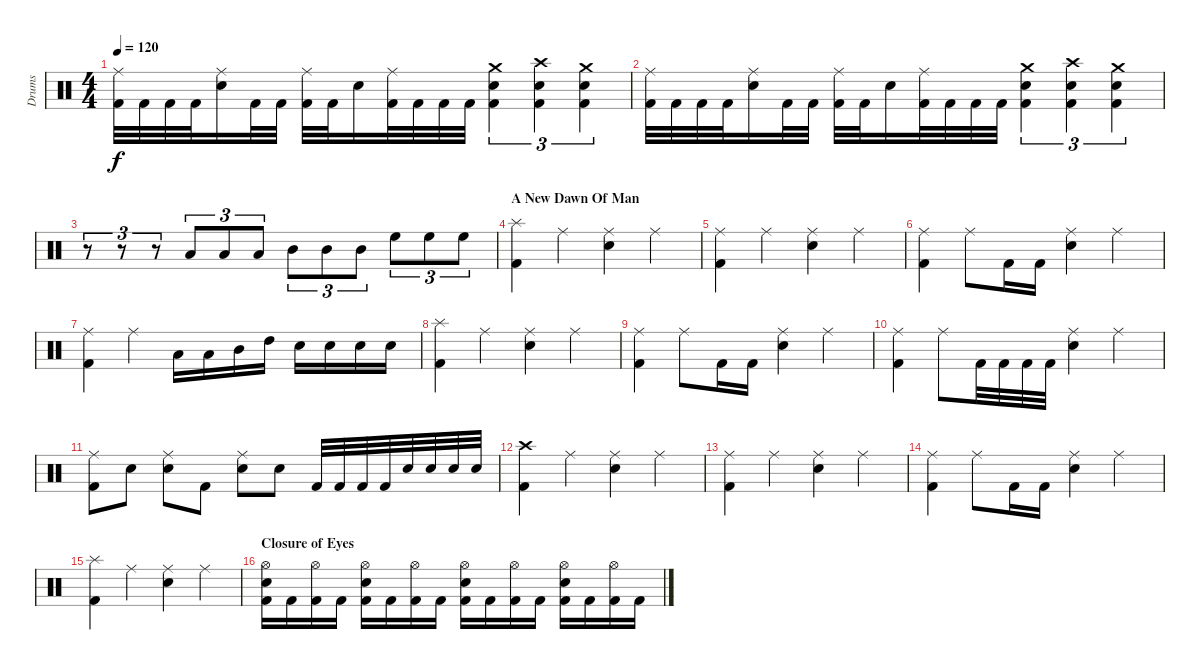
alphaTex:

\track ("Drums" "Drums") {instrument percussion}
\staff {score}
\articulation defaults
\ts (4 4)
\tempo 120
\clef neutral
\ks c
("Kick (hit) 2" "Ride (middle)").32{dy f} "Kick (hit) 2".32 "Kick (hit) 2".32 "Kick (hit) 2".32 ("Snare (hit) 2" "Ride (middle)").16 "Kick (hit) 2".32 "Kick (hit) 2".32 ("Kick (hit) 2" "Ride (middle)").32 "Kick (hit) 2".32 "Snare (hit) 2".16 ("Kick (hit) 2" "Ride (middle)").32 "Kick (hit) 2".32 "Kick (hit) 2".32 "Kick (hit) 2".32 ("Kick (hit) 2" "Snare (hit) 2" "Crash medium (hit)").4{tu (3 2)} ("Kick (hit) 2" "Snare (hit) 2" "Crash high (hit)").4{tu (3 2)} ("Kick (hit) 2" "Snare (hit) 2" "Crash medium (hit)").4{tu (3 2)} |
("Kick (hit) 2" "Ride (middle)").32 "Kick (hit) 2".32 "Kick (hit) 2".32 "Kick (hit) 2".32 ("Snare (hit) 2" "Ride (middle)").16 "Kick (hit) 2".32 "Kick (hit) 2".32 ("Kick (hit) 2" "Ride (middle)").32 "Kick (hit) 2".32 "Snare (hit) 2".16 ("Kick (hit) 2" "Ride (middle)").32 "Kick (hit) 2".32 "Kick (hit) 2".32 "Kick (hit) 2".32 ("Kick (hit) 2" "Snare (hit) 2" "Crash medium (hit)").4{tu (3 2)} ("Kick (hit) 2" "Snare (hit) 2" "Crash high (hit)").4{tu (3 2)} ("Kick (hit) 2" "Snare (hit) 2" "Crash medium (hit)").4{tu (3 2)} |
r.8{tu (3 2)} r.8{tu (3 2)} r.8{tu (3 2)} "Low Tom (hit)".8{tu (3 2)} "Low Tom (hit)".8{tu (3 2)} "Low Tom (hit)".8{tu (3 2)} "Mid Tom (hit)".8{tu (3 2)} "Mid Tom (hit)".8{tu (3 2)} "Mid Tom (hit)".8{tu (3 2)} "High Floor Tom (hit)".8{tu (3 2)} "High Floor Tom (hit)".8{tu (3 2)} "High Floor Tom (hit)".8{tu (3 2)} |
\section ("" "A New Dawn Of Man")
("Kick (hit) 2" "Splash (hit)").4 "Ride (middle)".4 ("Snare (hit) 2" "Ride (middle)").4 "Ride (middle)".4 |
("Kick (hit) 2" "Ride (middle)").4 "Ride (middle)".4 ("Snare (hit) 2" "Ride (middle)").4 "Ride (middle)".4 |
("Kick (hit) 2" "Ride (middle)").4 "Ride (middle)".8 "Kick (hit) 2".16 "Kick (hit) 2".16 ("Snare (hit) 2" "Ride (middle)").4 "Ride (middle)".4 |
("Kick (hit) 2" "Ride (middle)").4 "Ride (middle)".4 "Low Tom (hit)".16 "Low Tom (hit)".16 "Mid Tom (hit)".16 "High Tom (hit)".16 "Snare (hit) 2".16 "Snare (hit) 2".16 "Snare (hit) 2".16 "Snare (hit) 2".16 |
("Kick (hit) 2" "Splash (hit)").4 "Ride (middle)".4 ("Snare (hit) 2" "Ride (middle)").4 "Ride (middle)".4 |
("Kick (hit) 2" "Ride (middle)").4 "Ride (middle)".8 "Kick (hit) 2".16 "Kick (hit) 2".16 ("Snare (hit) 2" "Ride (middle)").4 "Ride (middle)".4 |
("Kick (hit) 2" "Ride (middle)").4 "Ride (middle)".8 "Kick (hit) 2".32 "Kick (hit) 2".32 "Kick (hit) 2".32 "Kick (hit) 2".32 ("Snare (hit) 2" "Ride (middle)").4 "Ride (middle)".4 |
("Kick (hit) 2" "Ride (middle)").8 "Snare (hit) 2".8 ("Snare (hit) 2" "Ride (middle)").8 "Kick (hit) 2".8 ("Snare (hit) 2" "Ride (middle)").8 "Snare (hit) 2".8 "Kick (hit) 2".32 "Kick (hit) 2".32 "Kick (hit) 2".32 "Kick (hit) 2".32 "Snare (hit) 2".32 "Snare (hit) 2".32 "Snare (hit) 2".32 "Snare (hit) 2".32 |
("Kick (hit) 2" "Crash high (hit)").4 "Ride (middle)".4 ("Snare (hit) 2" "Ride (middle)").4 "Ride (middle)".4 |
("Kick (hit) 2" "Ride (middle)").4 "Ride (middle)".4 ("Snare (hit) 2" "Ride (middle)").4 "Ride (middle)".4 |
("Kick (hit) 2" "Ride (middle)").4 "Ride (middle)".8 "Kick (hit) 2".16 "Kick (hit) 2".16 ("Snare (hit) 2" "Ride (middle)").4 "Ride (middle)".4 |
("Kick (hit) 2" "Splash (hit)").4 "Ride (middle)".4 ("Snare (hit) 2" "Ride (middle)").4 "Ride (middle)".4 |
\section ("" "Closure of Eyes")
("Kick (hit) 2" "Snare (hit) 2" "Hi-Hat (open)").16 "Kick (hit) 2".16 ("Kick (hit) 2" "Hi-Hat (open)").16 "Kick (hit) 2".16 ("Kick (hit) 2" "Snare (hit) 2" "Hi-Hat (open)").16 "Kick (hit) 2".16 ("Kick (hit) 2" "Hi-Hat (open)").16 "Kick (hit) 2".16 ("Kick (hit) 2" "Snare (hit) 2" "Hi-Hat (open)").16 "Kick (hit) 2".16 ("Kick (hit) 2" "Hi-Hat (open)").16 "Kick (hit) 2".16 ("Kick (hit) 2" "Snare (hit) 2" "Hi-Hat (open)").16 "Kick (hit) 2".16 ("Kick (hit) 2" "Hi-Hat (open)").16 "Kick (hit) 2".16
